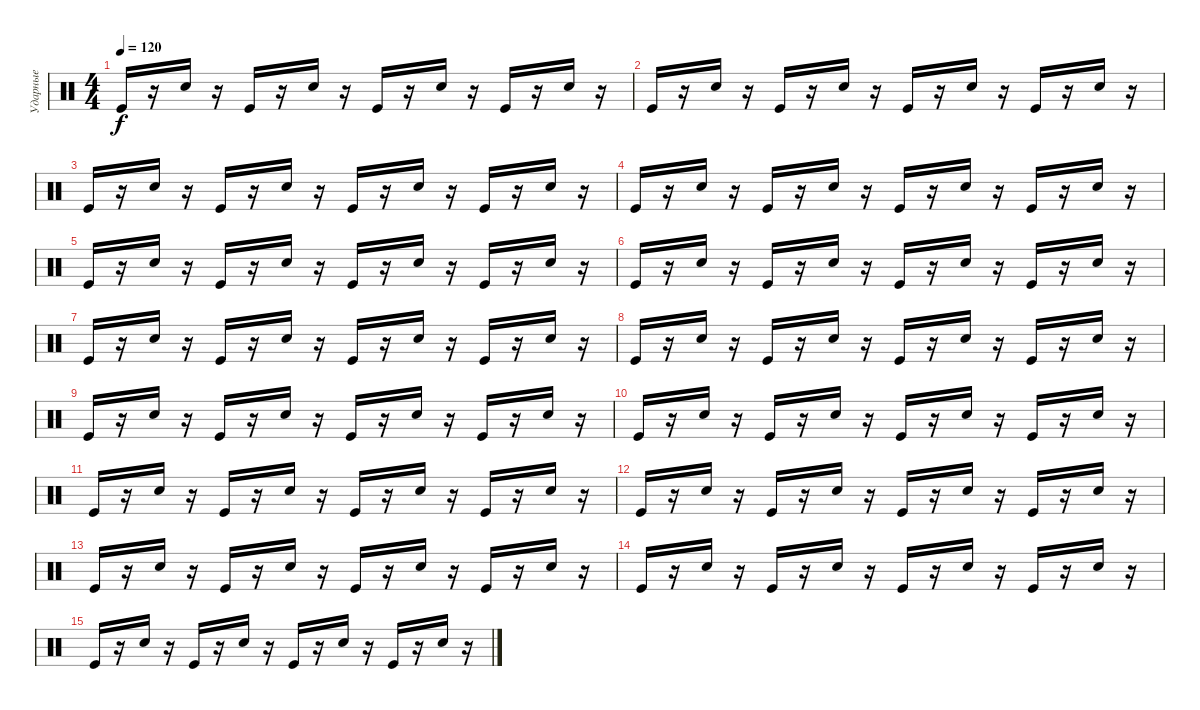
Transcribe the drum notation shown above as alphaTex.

\track ("Ударные" "Ударные") {instrument percussion}
\staff {score}
\articulation defaults
\ts (4 4)
\tempo 120
\clef neutral
\ks c "Kick (hit)".16{dy f}
r.16 "Electric Snare (hit)".16 r.16 "Kick (hit)".16 r.16 "Electric Snare (hit)".16 r.16 "Kick (hit)".16 r.16 "Electric Snare (hit)".16 r.16 "Kick (hit)".16 r.16 "Electric Snare (hit)".16 r.16 |
"Kick (hit)".16 r.16 "Electric Snare (hit)".16 r.16 "Kick (hit)".16 r.16 "Electric Snare (hit)".16 r.16 "Kick (hit)".16 r.16 "Electric Snare (hit)".16 r.16 "Kick (hit)".16 r.16 "Electric Snare (hit)".16 r.16 |
"Kick (hit)".16 r.16 "Electric Snare (hit)".16 r.16 "Kick (hit)".16 r.16 "Electric Snare (hit)".16 r.16 "Kick (hit)".16 r.16 "Electric Snare (hit)".16 r.16 "Kick (hit)".16 r.16 "Electric Snare (hit)".16 r.16 |
"Kick (hit)".16 r.16 "Electric Snare (hit)".16 r.16 "Kick (hit)".16 r.16 "Electric Snare (hit)".16 r.16 "Kick (hit)".16 r.16 "Electric Snare (hit)".16 r.16 "Kick (hit)".16 r.16 "Electric Snare (hit)".16 r.16 |
"Kick (hit)".16 r.16 "Electric Snare (hit)".16 r.16 "Kick (hit)".16 r.16 "Electric Snare (hit)".16 r.16 "Kick (hit)".16 r.16 "Electric Snare (hit)".16 r.16 "Kick (hit)".16 r.16 "Electric Snare (hit)".16 r.16 |
"Kick (hit)".16 r.16 "Electric Snare (hit)".16 r.16 "Kick (hit)".16 r.16 "Electric Snare (hit)".16 r.16 "Kick (hit)".16 r.16 "Electric Snare (hit)".16 r.16 "Kick (hit)".16 r.16 "Electric Snare (hit)".16 r.16 |
"Kick (hit)".16 r.16 "Electric Snare (hit)".16 r.16 "Kick (hit)".16 r.16 "Electric Snare (hit)".16 r.16 "Kick (hit)".16 r.16 "Electric Snare (hit)".16 r.16 "Kick (hit)".16 r.16 "Electric Snare (hit)".16 r.16 |
"Kick (hit)".16 r.16 "Electric Snare (hit)".16 r.16 "Kick (hit)".16 r.16 "Electric Snare (hit)".16 r.16 "Kick (hit)".16 r.16 "Electric Snare (hit)".16 r.16 "Kick (hit)".16 r.16 "Electric Snare (hit)".16 r.16 |
"Kick (hit)".16 r.16 "Electric Snare (hit)".16 r.16 "Kick (hit)".16 r.16 "Electric Snare (hit)".16 r.16 "Kick (hit)".16 r.16 "Electric Snare (hit)".16 r.16 "Kick (hit)".16 r.16 "Electric Snare (hit)".16 r.16 |
"Kick (hit)".16 r.16 "Electric Snare (hit)".16 r.16 "Kick (hit)".16 r.16 "Electric Snare (hit)".16 r.16 "Kick (hit)".16 r.16 "Electric Snare (hit)".16 r.16 "Kick (hit)".16 r.16 "Electric Snare (hit)".16 r.16 |
"Kick (hit)".16 r.16 "Electric Snare (hit)".16 r.16 "Kick (hit)".16 r.16 "Electric Snare (hit)".16 r.16 "Kick (hit)".16 r.16 "Electric Snare (hit)".16 r.16 "Kick (hit)".16 r.16 "Electric Snare (hit)".16 r.16 |
"Kick (hit)".16 r.16 "Electric Snare (hit)".16 r.16 "Kick (hit)".16 r.16 "Electric Snare (hit)".16 r.16 "Kick (hit)".16 r.16 "Electric Snare (hit)".16 r.16 "Kick (hit)".16 r.16 "Electric Snare (hit)".16 r.16 |
"Kick (hit)".16 r.16 "Electric Snare (hit)".16 r.16 "Kick (hit)".16 r.16 "Electric Snare (hit)".16 r.16 "Kick (hit)".16 r.16 "Electric Snare (hit)".16 r.16 "Kick (hit)".16 r.16 "Electric Snare (hit)".16 r.16 |
"Kick (hit)".16 r.16 "Electric Snare (hit)".16 r.16 "Kick (hit)".16 r.16 "Electric Snare (hit)".16 r.16 "Kick (hit)".16 r.16 "Electric Snare (hit)".16 r.16 "Kick (hit)".16 r.16 "Electric Snare (hit)".16 r.16 |
"Kick (hit)".16 r.16 "Electric Snare (hit)".16 r.16 "Kick (hit)".16 r.16 "Electric Snare (hit)".16 r.16 "Kick (hit)".16 r.16 "Electric Snare (hit)".16 r.16 "Kick (hit)".16 r.16 "Electric Snare (hit)".16 r.16
